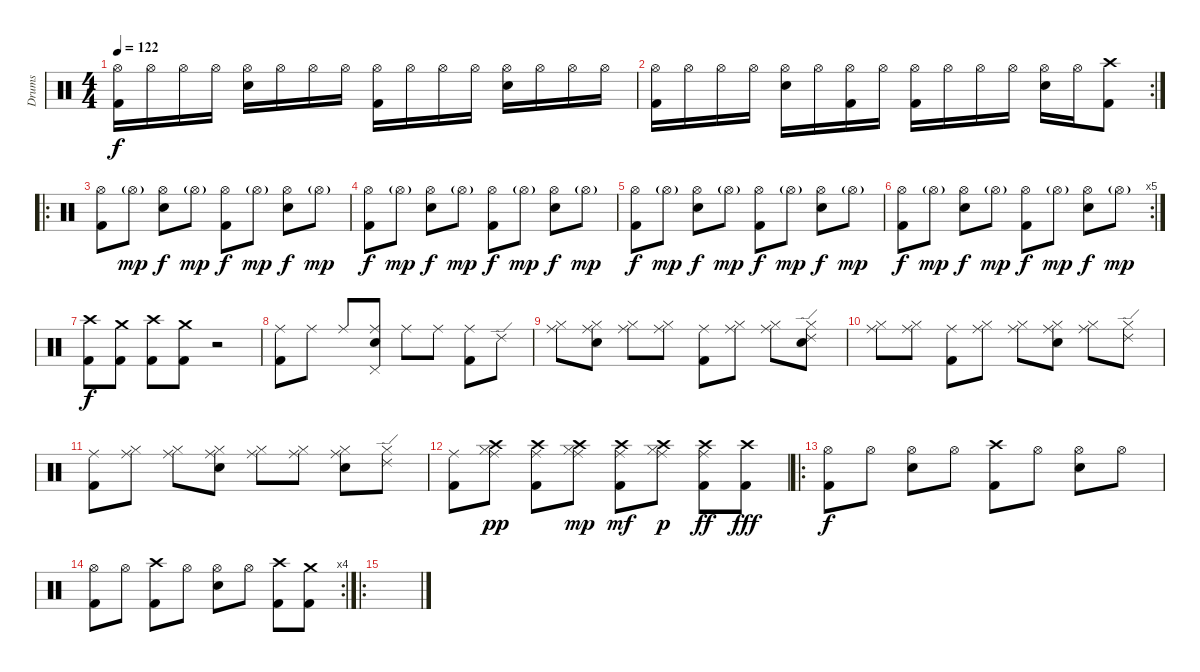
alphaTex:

\track ("Drums" "Drums") {instrument percussion}
\staff {score}
\articulation defaults
\ts (4 4)
\tempo 122
\clef neutral
\ks c
("Hi-Hat (open)" "Kick (hit) 2").16{dy f} "Hi-Hat (open)".16 "Hi-Hat (open)".16 "Hi-Hat (open)".16 ("Hi-Hat (open)" "Snare (hit) 2").16 "Hi-Hat (open)".16 "Hi-Hat (open)".16 "Hi-Hat (open)".16 ("Hi-Hat (open)" "Kick (hit) 2").16 "Hi-Hat (open)".16 "Hi-Hat (open)".16 "Hi-Hat (open)".16 ("Hi-Hat (open)" "Snare (hit) 2").16 "Hi-Hat (open)".16 "Hi-Hat (open)".16 "Hi-Hat (open)".16 |
\rc 2
("Hi-Hat (open)" "Kick (hit) 2").16 "Hi-Hat (open)".16 "Hi-Hat (open)".16 "Hi-Hat (open)".16 ("Hi-Hat (open)" "Snare (hit) 2").16 "Hi-Hat (open)".16 ("Hi-Hat (open)" "Kick (hit) 2").16 "Hi-Hat (open)".16 ("Hi-Hat (open)" "Kick (hit) 2").16 "Hi-Hat (open)".16 "Hi-Hat (open)".16 "Hi-Hat (open)".16 ("Hi-Hat (open)" "Snare (hit) 2").16 "Hi-Hat (open)".16 ("Crash high (hit)" "Kick (hit) 2").8 |
\ro
("Hi-Hat (open)" "Kick (hit) 2").8 "Hi-Hat (open)"{g}.8{dy mp} ("Hi-Hat (open)" "Snare (hit) 2").8{dy f} "Hi-Hat (open)"{g}.8{dy mp} ("Hi-Hat (open)" "Kick (hit) 2").8{dy f} "Hi-Hat (open)"{g}.8{dy mp} ("Hi-Hat (open)" "Snare (hit) 2").8{dy f} "Hi-Hat (open)"{g}.8{dy mp} |
("Hi-Hat (open)" "Kick (hit) 2").8{dy f} "Hi-Hat (open)"{g}.8{dy mp} ("Hi-Hat (open)" "Snare (hit) 2").8{dy f} "Hi-Hat (open)"{g}.8{dy mp} ("Hi-Hat (open)" "Kick (hit) 2").8{dy f} "Hi-Hat (open)"{g}.8{dy mp} ("Hi-Hat (open)" "Snare (hit) 2").8{dy f} "Hi-Hat (open)"{g}.8{dy mp} |
("Hi-Hat (open)" "Kick (hit) 2").8{dy f} "Hi-Hat (open)"{g}.8{dy mp} ("Hi-Hat (open)" "Snare (hit) 2").8{dy f} "Hi-Hat (open)"{g}.8{dy mp} ("Hi-Hat (open)" "Kick (hit) 2").8{dy f} "Hi-Hat (open)"{g}.8{dy mp} ("Hi-Hat (open)" "Snare (hit) 2").8{dy f} "Hi-Hat (open)"{g}.8{dy mp} |
\rc 5
("Hi-Hat (open)" "Kick (hit) 2").8{dy f} "Hi-Hat (open)"{g}.8{dy mp} ("Hi-Hat (open)" "Snare (hit) 2").8{dy f} "Hi-Hat (open)"{g}.8{dy mp} ("Hi-Hat (open)" "Kick (hit) 2").8{dy f} "Hi-Hat (open)"{g}.8{dy mp} ("Hi-Hat (open)" "Snare (hit) 2").8{dy f} "Hi-Hat (open)"{g}.8{dy mp} |
("Crash high (hit)" "Kick (hit) 2").8{dy f} ("Crash medium (hit)" "Kick (hit) 2").8 ("Crash high (hit)" "Kick (hit) 2").8 ("Crash medium (hit)" "Kick (hit) 2").8 r.2 |
("Ride (middle)" "Kick (hit) 2").8 "Ride (middle)".8 "Ride (middle)".8 ("Ride (middle)" "Snare (hit) 2" "Pedal Hi-Hat (hit)").8 "Ride (middle)".8 "Ride (middle)".8 ("Ride (middle)" "Kick (hit) 2").8 "Ride (edge) 2".8 |
("Ride (middle)" "Hi-Hat (closed)").8 ("Ride (middle)" "Snare (hit) 2" "Hi-Hat (closed)").8 ("Ride (middle)" "Hi-Hat (closed)").8 ("Ride (middle)" "Hi-Hat (closed)").8 ("Ride (middle)" "Kick (hit) 2").8 ("Ride (middle)" "Hi-Hat (closed)").8 ("Ride (middle)" "Hi-Hat (closed)").8 ("Ride (edge) 2" "Snare (hit) 2" "Hi-Hat (closed)").8 |
("Ride (middle)" "Hi-Hat (closed)").8 ("Ride (middle)" "Hi-Hat (closed)").8 ("Ride (middle)" "Kick (hit) 2").8 ("Ride (middle)" "Hi-Hat (closed)").8 ("Ride (middle)" "Hi-Hat (closed)").8 ("Ride (middle)" "Snare (hit) 2" "Hi-Hat (closed)").8 ("Ride (middle)" "Hi-Hat (closed)").8 ("Ride (edge) 2" "Hi-Hat (closed)").8 |
("Ride (middle)" "Kick (hit) 2").8 ("Ride (middle)" "Hi-Hat (closed)").8 ("Ride (middle)" "Hi-Hat (closed)").8 ("Ride (middle)" "Snare (hit) 2" "Hi-Hat (closed)").8 ("Ride (middle)" "Hi-Hat (closed)").8 ("Ride (middle)" "Hi-Hat (closed)").8 ("Ride (middle)" "Snare (hit) 2" "Hi-Hat (closed)").8 ("Ride (edge) 2" "Hi-Hat (closed)").8 |
("Ride (middle)" "Kick (hit) 2").8 ("Ride (middle)" "Crash high (hit)" "Hi-Hat (closed)").8{dy pp} ("Ride (middle)" "Crash high (hit)" "Kick (hit) 2").8 ("Ride (middle)" "Crash high (hit)" "Hi-Hat (closed)").8{dy mp} ("Ride (middle)" "Crash high (hit)" "Kick (hit) 2").8{dy mf} ("Ride (middle)" "Crash high (hit)" "Hi-Hat (closed)").8{dy p} ("Ride (middle)" "Crash high (hit)" "Kick (hit) 2").8{dy ff} ("Kick (hit) 2" "Crash high (hit)").8{dy fff} |
\ro
("Hi-Hat (open)" "Kick (hit) 2").8{dy f} "Hi-Hat (open)".8 ("Hi-Hat (open)" "Snare (hit) 2").8 "Hi-Hat (open)".8 ("Crash high (hit)" "Kick (hit) 2").8 "Hi-Hat (open)".8 ("Hi-Hat (open)" "Snare (hit) 2").8 "Hi-Hat (open)".8 |
\rc 4
("Hi-Hat (open)" "Kick (hit) 2").8 "Hi-Hat (open)".8 ("Crash high (hit)" "Kick (hit) 2").8 "Hi-Hat (open)".8 ("Hi-Hat (open)" "Snare (hit) 2").8 "Hi-Hat (open)".8 ("Crash high (hit)" "Kick (hit) 2").8 ("Crash medium (hit)" "Kick (hit) 2").8 |
\ro
